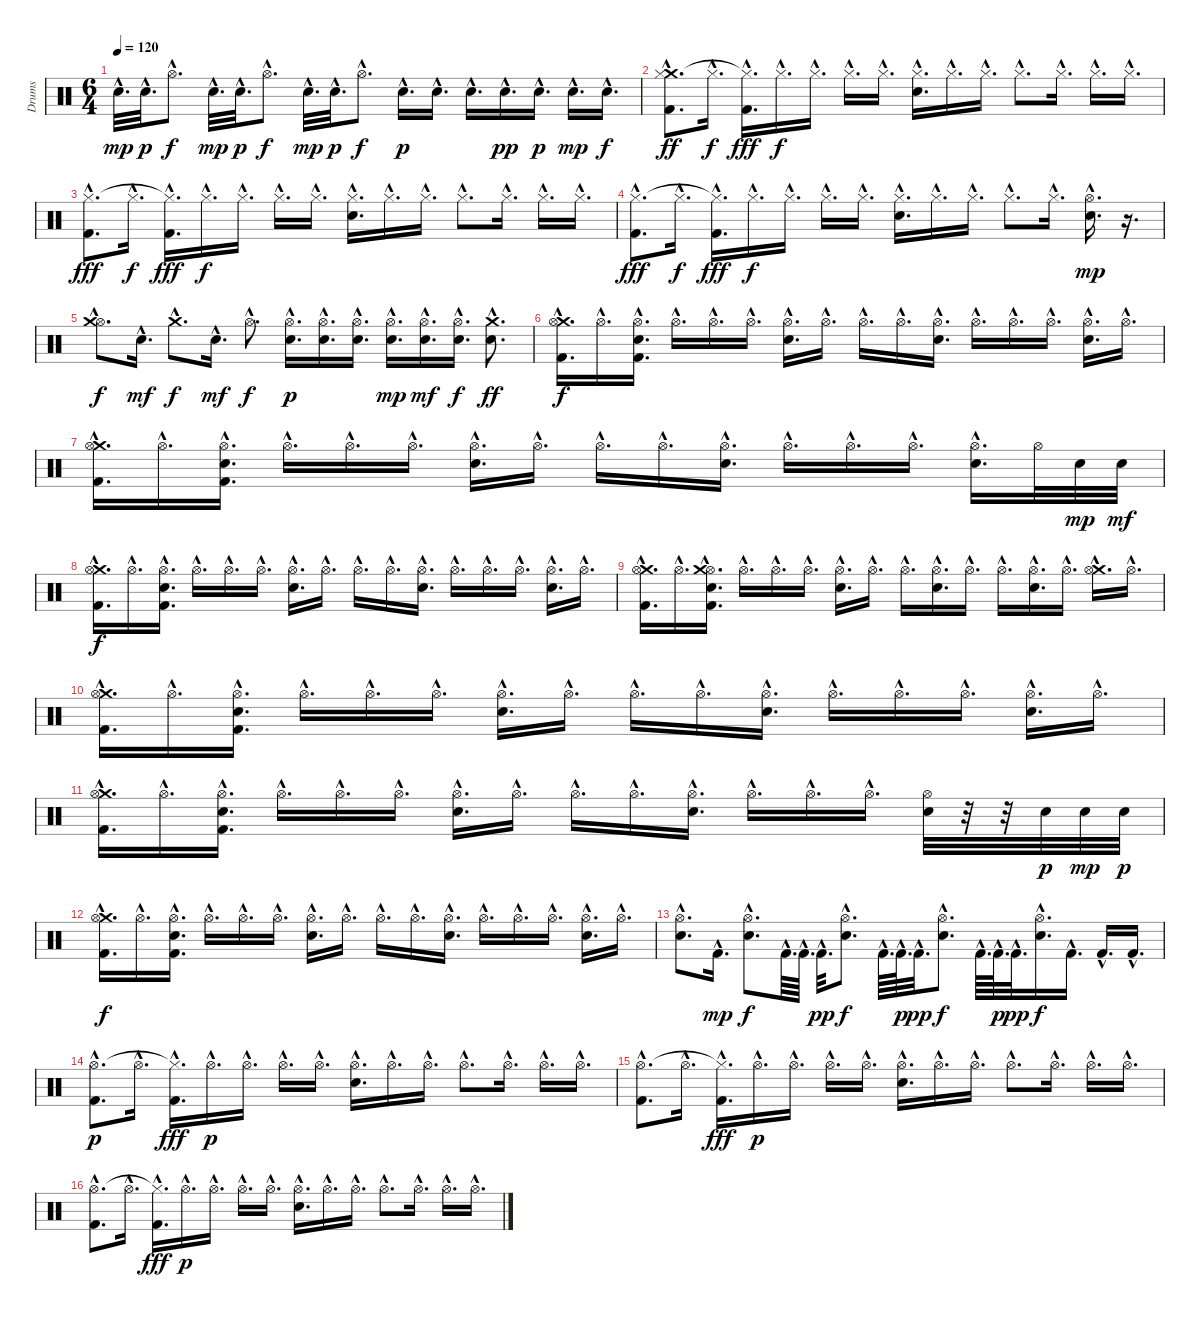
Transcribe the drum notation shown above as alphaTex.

\track ("Drums" "Drums") {instrument percussion}
\staff {score}
\articulation defaults
\ts (6 4)
\tempo 120
\clef neutral
\ks c "Electric Snare (hit)"{hac}.32{d dy mp} "Electric Snare (hit)"{hac}.32{d dy p} "Hi-Hat (open)"{hac}.8{d dy f} "Electric Snare (hit)"{hac}.32{d dy mp} "Electric Snare (hit)"{hac}.32{d dy p} "Hi-Hat (open)"{hac}.8{d dy f} "Electric Snare (hit)"{hac}.32{d dy mp} "Electric Snare (hit)"{hac}.32{d dy p} "Hi-Hat (open)"{hac}.8{d dy f} "Electric Snare (hit)"{hac}.16{d dy p} "Electric Snare (hit)"{hac}.16{d} "Electric Snare (hit)"{hac}.16{d} "Electric Snare (hit)"{hac}.16{d dy pp} "Electric Snare (hit)"{hac}.16{d dy p} "Electric Snare (hit)"{hac}.16{d dy mp} "Electric Snare (hit)"{hac}.16{d dy f}
|
("Kick (hit) 2"{hac} "Crash medium (hit)"{hac} "Hi-Hat (closed)"{hac}).8{d dy ff} "Hi-Hat (closed)"{hac}.16{d dy f} ("Kick (hit) 2"{hac} "Hi-Hat (closed)"{hac t}).16{d dy fff} "Hi-Hat (closed)"{hac}.16{d dy f} "Hi-Hat (closed)"{hac}.16{d} "Hi-Hat (closed)"{hac}.16{d} "Hi-Hat (closed)"{hac}.16{d} ("Electric Snare (hit)"{hac} "Hi-Hat (closed)"{hac}).16{d} "Hi-Hat (closed)"{hac}.16{d} "Hi-Hat (closed)"{hac}.16{d} "Hi-Hat (closed)"{hac}.8{d} "Hi-Hat (closed)"{hac}.16{d} "Hi-Hat (closed)"{hac}.16{d} "Hi-Hat (closed)"{hac}.16{d} |
("Kick (hit) 2"{hac} "Hi-Hat (closed)"{hac}).8{d dy fff} "Hi-Hat (closed)"{hac}.16{d dy f} ("Kick (hit) 2"{hac} "Hi-Hat (closed)"{hac t}).16{d dy fff} "Hi-Hat (closed)"{hac}.16{d dy f} "Hi-Hat (closed)"{hac}.16{d} "Hi-Hat (closed)"{hac}.16{d} "Hi-Hat (closed)"{hac}.16{d} ("Electric Snare (hit)"{hac} "Hi-Hat (closed)"{hac}).16{d} "Hi-Hat (closed)"{hac}.16{d} "Hi-Hat (closed)"{hac}.16{d} "Hi-Hat (closed)"{hac}.8{d} "Hi-Hat (closed)"{hac}.16{d} "Hi-Hat (closed)"{hac}.16{d} "Hi-Hat (closed)"{hac}.16{d} |
("Kick (hit) 2"{hac} "Hi-Hat (closed)"{hac}).8{d dy fff} "Hi-Hat (closed)"{hac}.16{d dy f} ("Kick (hit) 2"{hac} "Hi-Hat (closed)"{hac t}).16{d dy fff} "Hi-Hat (closed)"{hac}.16{d dy f} "Hi-Hat (closed)"{hac}.16{d} "Hi-Hat (closed)"{hac}.16{d} "Hi-Hat (closed)"{hac}.16{d} ("Electric Snare (hit)"{hac} "Hi-Hat (closed)"{hac}).16{d} "Hi-Hat (closed)"{hac}.16{d} "Hi-Hat (closed)"{hac}.16{d} "Hi-Hat (closed)"{hac}.8{d} "Hi-Hat (closed)"{hac}.16{d} ("Hi-Hat (open)"{hac} "Electric Snare (hit)"{hac}).16{d dy mp} r.16{d} |
("Hi-Hat (open)"{hac} "Crash medium (hit)"{hac}).8{d dy f} "Electric Snare (hit)"{hac}.16{d dy mf} "Crash medium (hit)"{hac}.8{d dy f} "Electric Snare (hit)"{hac}.16{d dy mf} "Hi-Hat (open)"{hac}.8{d dy f} ("Electric Snare (hit)"{hac} "Hi-Hat (open)"{hac}).16{d dy p} ("Electric Snare (hit)"{hac} "Hi-Hat (open)"{hac}).16{d} ("Electric Snare (hit)"{hac} "Hi-Hat (open)"{hac}).16{d} ("Electric Snare (hit)"{hac} "Hi-Hat (open)"{hac}).16{d dy mp} ("Electric Snare (hit)"{hac} "Hi-Hat (open)"{hac}).16{d dy mf} ("Electric Snare (hit)"{hac} "Hi-Hat (open)"{hac}).16{d dy f} ("Electric Snare (hit)"{hac} "Crash medium (hit)"{hac}).8{d dy ff} |
("Crash medium (hit)"{hac} "Hi-Hat (open)"{hac} "Kick (hit) 2"{hac}).16{d dy f} "Hi-Hat (open)"{hac}.16{d} ("Electric Snare (hit)"{hac} "Hi-Hat (open)"{hac} "Kick (hit) 2"{hac}).16{d} "Hi-Hat (open)"{hac}.16{d} "Hi-Hat (open)"{hac}.16{d} "Hi-Hat (open)"{hac}.16{d} ("Electric Snare (hit)"{hac} "Hi-Hat (open)"{hac}).16{d} "Hi-Hat (open)"{hac}.16{d} "Hi-Hat (open)"{hac}.16{d} "Hi-Hat (open)"{hac}.16{d} ("Electric Snare (hit)"{hac} "Hi-Hat (open)"{hac}).16{d} "Hi-Hat (open)"{hac}.16{d} "Hi-Hat (open)"{hac}.16{d} "Hi-Hat (open)"{hac}.16{d} ("Electric Snare (hit)"{hac} "Hi-Hat (open)"{hac}).16{d} "Hi-Hat (open)"{hac}.16{d} |
("Crash medium (hit)"{hac} "Hi-Hat (open)"{hac} "Kick (hit) 2"{hac}).16{d} "Hi-Hat (open)"{hac}.16{d} ("Electric Snare (hit)"{hac} "Hi-Hat (open)"{hac} "Kick (hit) 2"{hac}).16{d} "Hi-Hat (open)"{hac}.16{d} "Hi-Hat (open)"{hac}.16{d} "Hi-Hat (open)"{hac}.16{d} ("Electric Snare (hit)"{hac} "Hi-Hat (open)"{hac}).16{d} "Hi-Hat (open)"{hac}.16{d} "Hi-Hat (open)"{hac}.16{d} "Hi-Hat (open)"{hac}.16{d} ("Electric Snare (hit)"{hac} "Hi-Hat (open)"{hac}).16{d} "Hi-Hat (open)"{hac}.16{d} "Hi-Hat (open)"{hac}.16{d} "Hi-Hat (open)"{hac}.16{d} ("Electric Snare (hit)"{hac} "Hi-Hat (open)"{hac}).16{d} "Hi-Hat (open)".32 "Electric Snare (hit)".32{dy mp} "Electric Snare (hit)".32{dy mf} |
("Crash medium (hit)"{hac} "Hi-Hat (open)"{hac} "Kick (hit) 2"{hac}).16{d dy f} "Hi-Hat (open)"{hac}.16{d} ("Electric Snare (hit)"{hac} "Hi-Hat (open)"{hac} "Kick (hit) 2"{hac}).16{d} "Hi-Hat (open)"{hac}.16{d} "Hi-Hat (open)"{hac}.16{d} "Hi-Hat (open)"{hac}.16{d} ("Electric Snare (hit)"{hac} "Hi-Hat (open)"{hac}).16{d} "Hi-Hat (open)"{hac}.16{d} "Hi-Hat (open)"{hac}.16{d} "Hi-Hat (open)"{hac}.16{d} ("Electric Snare (hit)"{hac} "Hi-Hat (open)"{hac}).16{d} "Hi-Hat (open)"{hac}.16{d} "Hi-Hat (open)"{hac}.16{d} "Hi-Hat (open)"{hac}.16{d} ("Electric Snare (hit)"{hac} "Hi-Hat (open)"{hac}).16{d} "Hi-Hat (open)"{hac}.16{d} |
("Crash medium (hit)"{hac} "Hi-Hat (open)"{hac} "Kick (hit) 2"{hac}).16{d} "Hi-Hat (open)"{hac}.16{d} ("Electric Snare (hit)"{hac} "Hi-Hat (open)"{hac} "Kick (hit) 2"{hac} "Crash medium (hit)"{hac}).16{d} "Hi-Hat (open)"{hac}.16{d} "Hi-Hat (open)"{hac}.16{d} "Hi-Hat (open)"{hac}.16{d} ("Electric Snare (hit)"{hac} "Hi-Hat (open)"{hac}).16{d} "Hi-Hat (open)"{hac}.16{d} "Hi-Hat (open)"{hac}.16{d} ("Electric Snare (hit)"{hac} "Hi-Hat (open)"{hac}).16{d} "Hi-Hat (open)"{hac}.16{d} "Hi-Hat (open)"{hac}.16{d} ("Electric Snare (hit)"{hac} "Hi-Hat (open)"{hac}).16{d} "Hi-Hat (open)"{hac}.16{d} ("Crash medium (hit)"{hac} "Hi-Hat (open)"{hac}).16{d} "Hi-Hat (open)"{hac}.16{d} |
("Crash medium (hit)"{hac} "Hi-Hat (open)"{hac} "Kick (hit) 2"{hac}).16{d} "Hi-Hat (open)"{hac}.16{d} ("Electric Snare (hit)"{hac} "Hi-Hat (open)"{hac} "Kick (hit) 2"{hac}).16{d} "Hi-Hat (open)"{hac}.16{d} "Hi-Hat (open)"{hac}.16{d} "Hi-Hat (open)"{hac}.16{d} ("Electric Snare (hit)"{hac} "Hi-Hat (open)"{hac}).16{d} "Hi-Hat (open)"{hac}.16{d} "Hi-Hat (open)"{hac}.16{d} "Hi-Hat (open)"{hac}.16{d} ("Electric Snare (hit)"{hac} "Hi-Hat (open)"{hac}).16{d} "Hi-Hat (open)"{hac}.16{d} "Hi-Hat (open)"{hac}.16{d} "Hi-Hat (open)"{hac}.16{d} ("Electric Snare (hit)"{hac} "Hi-Hat (open)"{hac}).16{d} "Hi-Hat (open)"{hac}.16{d} |
("Crash medium (hit)"{hac} "Hi-Hat (open)"{hac} "Kick (hit) 2"{hac}).16{d} "Hi-Hat (open)"{hac}.16{d} ("Electric Snare (hit)"{hac} "Hi-Hat (open)"{hac} "Kick (hit) 2"{hac}).16{d} "Hi-Hat (open)"{hac}.16{d} "Hi-Hat (open)"{hac}.16{d} "Hi-Hat (open)"{hac}.16{d} ("Electric Snare (hit)"{hac} "Hi-Hat (open)"{hac}).16{d} "Hi-Hat (open)"{hac}.16{d} "Hi-Hat (open)"{hac}.16{d} "Hi-Hat (open)"{hac}.16{d} ("Electric Snare (hit)"{hac} "Hi-Hat (open)"{hac}).16{d} "Hi-Hat (open)"{hac}.16{d} "Hi-Hat (open)"{hac}.16{d} "Hi-Hat (open)"{hac}.16{d} ("Electric Snare (hit)" "Hi-Hat (open)").32 r.32 r.32 "Electric Snare (hit)".32{dy p} "Electric Snare (hit)".32{dy mp} "Electric Snare (hit)".32{dy p} |
("Crash medium (hit)"{hac} "Hi-Hat (open)"{hac} "Kick (hit) 2"{hac}).16{d dy f} "Hi-Hat (open)"{hac}.16{d} ("Electric Snare (hit)"{hac} "Hi-Hat (open)"{hac} "Kick (hit) 2"{hac}).16{d} "Hi-Hat (open)"{hac}.16{d} "Hi-Hat (open)"{hac}.16{d} "Hi-Hat (open)"{hac}.16{d} ("Electric Snare (hit)"{hac} "Hi-Hat (open)"{hac}).16{d} "Hi-Hat (open)"{hac}.16{d} "Hi-Hat (open)"{hac}.16{d} "Hi-Hat (open)"{hac}.16{d} ("Electric Snare (hit)"{hac} "Hi-Hat (open)"{hac}).16{d} "Hi-Hat (open)"{hac}.16{d} "Hi-Hat (open)"{hac}.16{d} "Hi-Hat (open)"{hac}.16{d} ("Electric Snare (hit)"{hac} "Hi-Hat (open)"{hac}).16{d} "Hi-Hat (open)"{hac}.16{d} |
("Electric Snare (hit)"{hac} "Hi-Hat (open)"{hac}).8{d} "Kick (hit) 2"{hac}.16{d dy mp} ("Electric Snare (hit)"{hac} "Hi-Hat (open)"{hac}).8{d dy f} "Kick (hit) 2"{hac}.64{d} "Kick (hit) 2"{hac}.64{d} "Kick (hit) 2"{hac}.32{d dy pp} ("Electric Snare (hit)"{hac} "Hi-Hat (open)"{hac}).8{d dy f} "Kick (hit) 2"{hac}.64{d} "Kick (hit) 2"{hac}.64{d dy p} "Kick (hit) 2"{hac}.32{d dy pp} ("Electric Snare (hit)"{hac} "Hi-Hat (open)"{hac}).8{d dy f} "Kick (hit) 2"{hac}.64{d} "Kick (hit) 2"{hac}.64{d dy p} "Kick (hit) 2"{hac}.32{d dy pp} ("Electric Snare (hit)"{hac} "Hi-Hat (open)"{hac}).16{d dy f} "Kick (hit) 2"{hac}.16{d} "Kick (hit) 2"{hac}.16{d} "Kick (hit) 2"{hac}.16{d} |
("Kick (hit) 2"{hac} "Hi-Hat (open)"{hac}).8{d dy p} "Hi-Hat (open)"{hac}.16{d} ("Kick (hit) 2"{hac} "Hi-Hat (closed)"{hac t}).16{d dy fff} "Hi-Hat (open)"{hac}.16{d dy p} "Hi-Hat (open)"{hac}.16{d} "Hi-Hat (open)"{hac}.16{d} "Hi-Hat (open)"{hac}.16{d} ("Electric Snare (hit)"{hac} "Hi-Hat (open)"{hac}).16{d} "Hi-Hat (open)"{hac}.16{d} "Hi-Hat (open)"{hac}.16{d} "Hi-Hat (open)"{hac}.8{d} "Hi-Hat (open)"{hac}.16{d} "Hi-Hat (open)"{hac}.16{d} "Hi-Hat (open)"{hac}.16{d} |
("Kick (hit) 2"{hac} "Hi-Hat (open)"{hac}).8{d} "Hi-Hat (open)"{hac}.16{d} ("Kick (hit) 2"{hac} "Hi-Hat (closed)"{hac t}).16{d dy fff} "Hi-Hat (open)"{hac}.16{d dy p} "Hi-Hat (open)"{hac}.16{d} "Hi-Hat (open)"{hac}.16{d} "Hi-Hat (open)"{hac}.16{d} ("Electric Snare (hit)"{hac} "Hi-Hat (open)"{hac}).16{d} "Hi-Hat (open)"{hac}.16{d} "Hi-Hat (open)"{hac}.16{d} "Hi-Hat (open)"{hac}.8{d} "Hi-Hat (open)"{hac}.16{d} "Hi-Hat (open)"{hac}.16{d} "Hi-Hat (open)"{hac}.16{d} |
("Kick (hit) 2"{hac} "Hi-Hat (open)"{hac}).8{d} "Hi-Hat (open)"{hac}.16{d} ("Kick (hit) 2"{hac} "Hi-Hat (closed)"{hac t}).16{d dy fff} "Hi-Hat (open)"{hac}.16{d dy p} "Hi-Hat (open)"{hac}.16{d} "Hi-Hat (open)"{hac}.16{d} "Hi-Hat (open)"{hac}.16{d} ("Electric Snare (hit)"{hac} "Hi-Hat (open)"{hac}).16{d} "Hi-Hat (open)"{hac}.16{d} "Hi-Hat (open)"{hac}.16{d} "Hi-Hat (open)"{hac}.8{d} "Hi-Hat (open)"{hac}.16{d} "Hi-Hat (open)"{hac}.16{d} "Hi-Hat (open)"{hac}.16{d}
